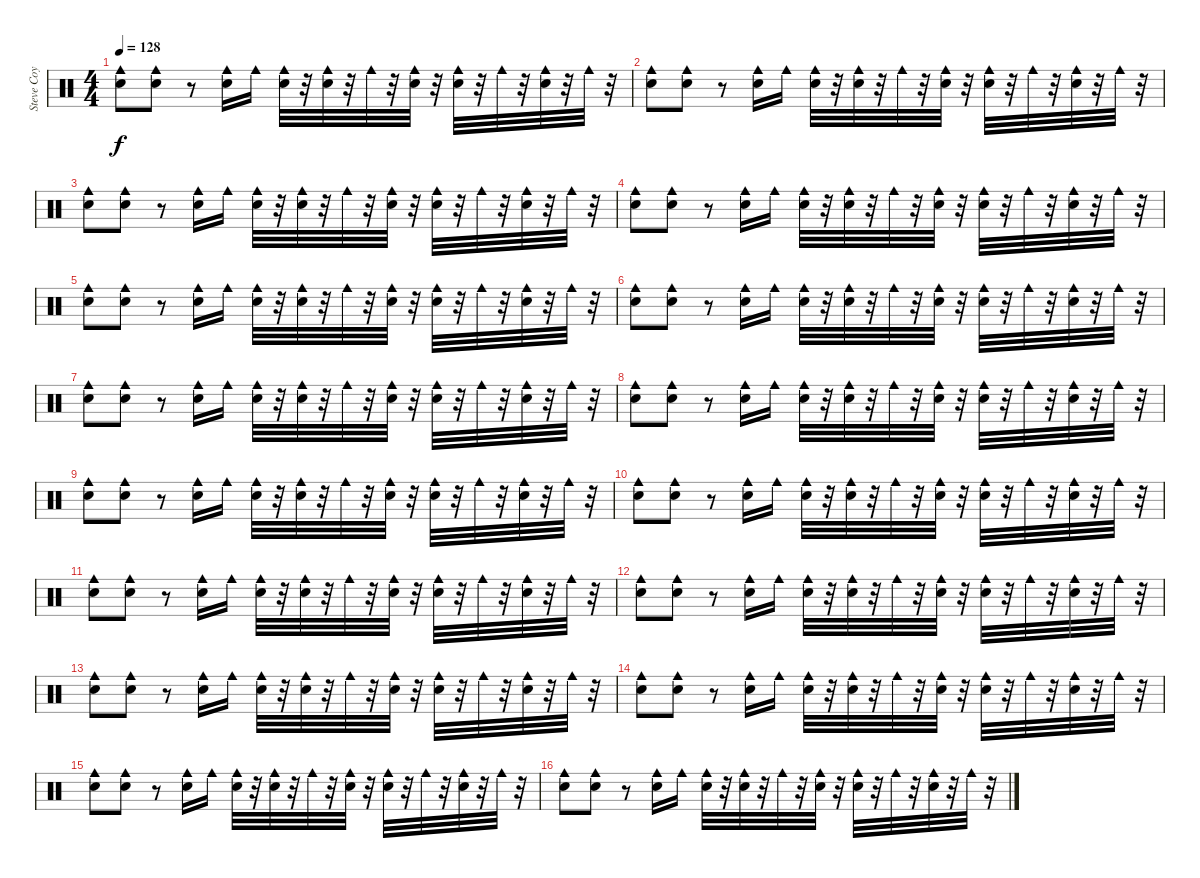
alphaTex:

\track ("Steve Coy" "Steve Coy") {instrument percussion}
\staff {score}
\articulation defaults
\ts (4 4)
\tempo 128
\clef neutral
\ks c
("Cowbell medium (hit)" "Hand Clap (hit)").8{dy f} ("Cowbell medium (hit)" "Hand Clap (hit)").8 r.8 ("Cowbell medium (hit)" "Hand Clap (hit)").16 "Cowbell medium (hit)".16 ("Cowbell medium (hit)" "Hand Clap (hit)").32 r.32 ("Cowbell medium (hit)" "Hand Clap (hit)").32 r.32 "Cowbell medium (hit)".32 r.32 ("Cowbell medium (hit)" "Hand Clap (hit)").32 r.32 ("Cowbell medium (hit)" "Hand Clap (hit)").32 r.32 "Cowbell medium (hit)".32 r.32 ("Cowbell medium (hit)" "Hand Clap (hit)").32 r.32 "Cowbell medium (hit)".32 r.32 |
("Cowbell medium (hit)" "Hand Clap (hit)").8 ("Cowbell medium (hit)" "Hand Clap (hit)").8 r.8 ("Cowbell medium (hit)" "Hand Clap (hit)").16 "Cowbell medium (hit)".16 ("Cowbell medium (hit)" "Hand Clap (hit)").32 r.32 ("Cowbell medium (hit)" "Hand Clap (hit)").32 r.32 "Cowbell medium (hit)".32 r.32 ("Cowbell medium (hit)" "Hand Clap (hit)").32 r.32 ("Cowbell medium (hit)" "Hand Clap (hit)").32 r.32 "Cowbell medium (hit)".32 r.32 ("Cowbell medium (hit)" "Hand Clap (hit)").32 r.32 "Cowbell medium (hit)".32 r.32 |
("Cowbell medium (hit)" "Hand Clap (hit)").8 ("Cowbell medium (hit)" "Hand Clap (hit)").8 r.8 ("Cowbell medium (hit)" "Hand Clap (hit)").16 "Cowbell medium (hit)".16 ("Cowbell medium (hit)" "Hand Clap (hit)").32 r.32 ("Cowbell medium (hit)" "Hand Clap (hit)").32 r.32 "Cowbell medium (hit)".32 r.32 ("Cowbell medium (hit)" "Hand Clap (hit)").32 r.32 ("Cowbell medium (hit)" "Hand Clap (hit)").32 r.32 "Cowbell medium (hit)".32 r.32 ("Cowbell medium (hit)" "Hand Clap (hit)").32 r.32 "Cowbell medium (hit)".32 r.32 |
("Cowbell medium (hit)" "Hand Clap (hit)").8 ("Cowbell medium (hit)" "Hand Clap (hit)").8 r.8 ("Cowbell medium (hit)" "Hand Clap (hit)").16 "Cowbell medium (hit)".16 ("Cowbell medium (hit)" "Hand Clap (hit)").32 r.32 ("Cowbell medium (hit)" "Hand Clap (hit)").32 r.32 "Cowbell medium (hit)".32 r.32 ("Cowbell medium (hit)" "Hand Clap (hit)").32 r.32 ("Cowbell medium (hit)" "Hand Clap (hit)").32 r.32 "Cowbell medium (hit)".32 r.32 ("Cowbell medium (hit)" "Hand Clap (hit)").32 r.32 "Cowbell medium (hit)".32 r.32 |
("Cowbell medium (hit)" "Hand Clap (hit)").8 ("Cowbell medium (hit)" "Hand Clap (hit)").8 r.8 ("Cowbell medium (hit)" "Hand Clap (hit)").16 "Cowbell medium (hit)".16 ("Cowbell medium (hit)" "Hand Clap (hit)").32 r.32 ("Cowbell medium (hit)" "Hand Clap (hit)").32 r.32 "Cowbell medium (hit)".32 r.32 ("Cowbell medium (hit)" "Hand Clap (hit)").32 r.32 ("Cowbell medium (hit)" "Hand Clap (hit)").32 r.32 "Cowbell medium (hit)".32 r.32 ("Cowbell medium (hit)" "Hand Clap (hit)").32 r.32 "Cowbell medium (hit)".32 r.32 |
("Cowbell medium (hit)" "Hand Clap (hit)").8 ("Cowbell medium (hit)" "Hand Clap (hit)").8 r.8 ("Cowbell medium (hit)" "Hand Clap (hit)").16 "Cowbell medium (hit)".16 ("Cowbell medium (hit)" "Hand Clap (hit)").32 r.32 ("Cowbell medium (hit)" "Hand Clap (hit)").32 r.32 "Cowbell medium (hit)".32 r.32 ("Cowbell medium (hit)" "Hand Clap (hit)").32 r.32 ("Cowbell medium (hit)" "Hand Clap (hit)").32 r.32 "Cowbell medium (hit)".32 r.32 ("Cowbell medium (hit)" "Hand Clap (hit)").32 r.32 "Cowbell medium (hit)".32 r.32 |
("Cowbell medium (hit)" "Hand Clap (hit)").8 ("Cowbell medium (hit)" "Hand Clap (hit)").8 r.8 ("Cowbell medium (hit)" "Hand Clap (hit)").16 "Cowbell medium (hit)".16 ("Cowbell medium (hit)" "Hand Clap (hit)").32 r.32 ("Cowbell medium (hit)" "Hand Clap (hit)").32 r.32 "Cowbell medium (hit)".32 r.32 ("Cowbell medium (hit)" "Hand Clap (hit)").32 r.32 ("Cowbell medium (hit)" "Hand Clap (hit)").32 r.32 "Cowbell medium (hit)".32 r.32 ("Cowbell medium (hit)" "Hand Clap (hit)").32 r.32 "Cowbell medium (hit)".32 r.32 |
("Cowbell medium (hit)" "Hand Clap (hit)").8 ("Cowbell medium (hit)" "Hand Clap (hit)").8 r.8 ("Cowbell medium (hit)" "Hand Clap (hit)").16 "Cowbell medium (hit)".16 ("Cowbell medium (hit)" "Hand Clap (hit)").32 r.32 ("Cowbell medium (hit)" "Hand Clap (hit)").32 r.32 "Cowbell medium (hit)".32 r.32 ("Cowbell medium (hit)" "Hand Clap (hit)").32 r.32 ("Cowbell medium (hit)" "Hand Clap (hit)").32 r.32 "Cowbell medium (hit)".32 r.32 ("Cowbell medium (hit)" "Hand Clap (hit)").32 r.32 "Cowbell medium (hit)".32 r.32 |
("Cowbell medium (hit)" "Hand Clap (hit)").8 ("Cowbell medium (hit)" "Hand Clap (hit)").8 r.8 ("Cowbell medium (hit)" "Hand Clap (hit)").16 "Cowbell medium (hit)".16 ("Cowbell medium (hit)" "Hand Clap (hit)").32 r.32 ("Cowbell medium (hit)" "Hand Clap (hit)").32 r.32 "Cowbell medium (hit)".32 r.32 ("Cowbell medium (hit)" "Hand Clap (hit)").32 r.32 ("Cowbell medium (hit)" "Hand Clap (hit)").32 r.32 "Cowbell medium (hit)".32 r.32 ("Cowbell medium (hit)" "Hand Clap (hit)").32 r.32 "Cowbell medium (hit)".32 r.32 |
("Cowbell medium (hit)" "Hand Clap (hit)").8 ("Cowbell medium (hit)" "Hand Clap (hit)").8 r.8 ("Cowbell medium (hit)" "Hand Clap (hit)").16 "Cowbell medium (hit)".16 ("Cowbell medium (hit)" "Hand Clap (hit)").32 r.32 ("Cowbell medium (hit)" "Hand Clap (hit)").32 r.32 "Cowbell medium (hit)".32 r.32 ("Cowbell medium (hit)" "Hand Clap (hit)").32 r.32 ("Cowbell medium (hit)" "Hand Clap (hit)").32 r.32 "Cowbell medium (hit)".32 r.32 ("Cowbell medium (hit)" "Hand Clap (hit)").32 r.32 "Cowbell medium (hit)".32 r.32 |
("Cowbell medium (hit)" "Hand Clap (hit)").8 ("Cowbell medium (hit)" "Hand Clap (hit)").8 r.8 ("Cowbell medium (hit)" "Hand Clap (hit)").16 "Cowbell medium (hit)".16 ("Cowbell medium (hit)" "Hand Clap (hit)").32 r.32 ("Cowbell medium (hit)" "Hand Clap (hit)").32 r.32 "Cowbell medium (hit)".32 r.32 ("Cowbell medium (hit)" "Hand Clap (hit)").32 r.32 ("Cowbell medium (hit)" "Hand Clap (hit)").32 r.32 "Cowbell medium (hit)".32 r.32 ("Cowbell medium (hit)" "Hand Clap (hit)").32 r.32 "Cowbell medium (hit)".32 r.32 |
("Cowbell medium (hit)" "Hand Clap (hit)").8 ("Cowbell medium (hit)" "Hand Clap (hit)").8 r.8 ("Cowbell medium (hit)" "Hand Clap (hit)").16 "Cowbell medium (hit)".16 ("Cowbell medium (hit)" "Hand Clap (hit)").32 r.32 ("Cowbell medium (hit)" "Hand Clap (hit)").32 r.32 "Cowbell medium (hit)".32 r.32 ("Cowbell medium (hit)" "Hand Clap (hit)").32 r.32 ("Cowbell medium (hit)" "Hand Clap (hit)").32 r.32 "Cowbell medium (hit)".32 r.32 ("Cowbell medium (hit)" "Hand Clap (hit)").32 r.32 "Cowbell medium (hit)".32 r.32 |
("Cowbell medium (hit)" "Hand Clap (hit)").8 ("Cowbell medium (hit)" "Hand Clap (hit)").8 r.8 ("Cowbell medium (hit)" "Hand Clap (hit)").16 "Cowbell medium (hit)".16 ("Cowbell medium (hit)" "Hand Clap (hit)").32 r.32 ("Cowbell medium (hit)" "Hand Clap (hit)").32 r.32 "Cowbell medium (hit)".32 r.32 ("Cowbell medium (hit)" "Hand Clap (hit)").32 r.32 ("Cowbell medium (hit)" "Hand Clap (hit)").32 r.32 "Cowbell medium (hit)".32 r.32 ("Cowbell medium (hit)" "Hand Clap (hit)").32 r.32 "Cowbell medium (hit)".32 r.32 |
("Cowbell medium (hit)" "Hand Clap (hit)").8 ("Cowbell medium (hit)" "Hand Clap (hit)").8 r.8 ("Cowbell medium (hit)" "Hand Clap (hit)").16 "Cowbell medium (hit)".16 ("Cowbell medium (hit)" "Hand Clap (hit)").32 r.32 ("Cowbell medium (hit)" "Hand Clap (hit)").32 r.32 "Cowbell medium (hit)".32 r.32 ("Cowbell medium (hit)" "Hand Clap (hit)").32 r.32 ("Cowbell medium (hit)" "Hand Clap (hit)").32 r.32 "Cowbell medium (hit)".32 r.32 ("Cowbell medium (hit)" "Hand Clap (hit)").32 r.32 "Cowbell medium (hit)".32 r.32 |
("Cowbell medium (hit)" "Hand Clap (hit)").8 ("Cowbell medium (hit)" "Hand Clap (hit)").8 r.8 ("Cowbell medium (hit)" "Hand Clap (hit)").16 "Cowbell medium (hit)".16 ("Cowbell medium (hit)" "Hand Clap (hit)").32 r.32 ("Cowbell medium (hit)" "Hand Clap (hit)").32 r.32 "Cowbell medium (hit)".32 r.32 ("Cowbell medium (hit)" "Hand Clap (hit)").32 r.32 ("Cowbell medium (hit)" "Hand Clap (hit)").32 r.32 "Cowbell medium (hit)".32 r.32 ("Cowbell medium (hit)" "Hand Clap (hit)").32 r.32 "Cowbell medium (hit)".32 r.32 |
("Cowbell medium (hit)" "Hand Clap (hit)").8 ("Cowbell medium (hit)" "Hand Clap (hit)").8 r.8 ("Cowbell medium (hit)" "Hand Clap (hit)").16 "Cowbell medium (hit)".16 ("Cowbell medium (hit)" "Hand Clap (hit)").32 r.32 ("Cowbell medium (hit)" "Hand Clap (hit)").32 r.32 "Cowbell medium (hit)".32 r.32 ("Cowbell medium (hit)" "Hand Clap (hit)").32 r.32 ("Cowbell medium (hit)" "Hand Clap (hit)").32 r.32 "Cowbell medium (hit)".32 r.32 ("Cowbell medium (hit)" "Hand Clap (hit)").32 r.32 "Cowbell medium (hit)".32 r.32
